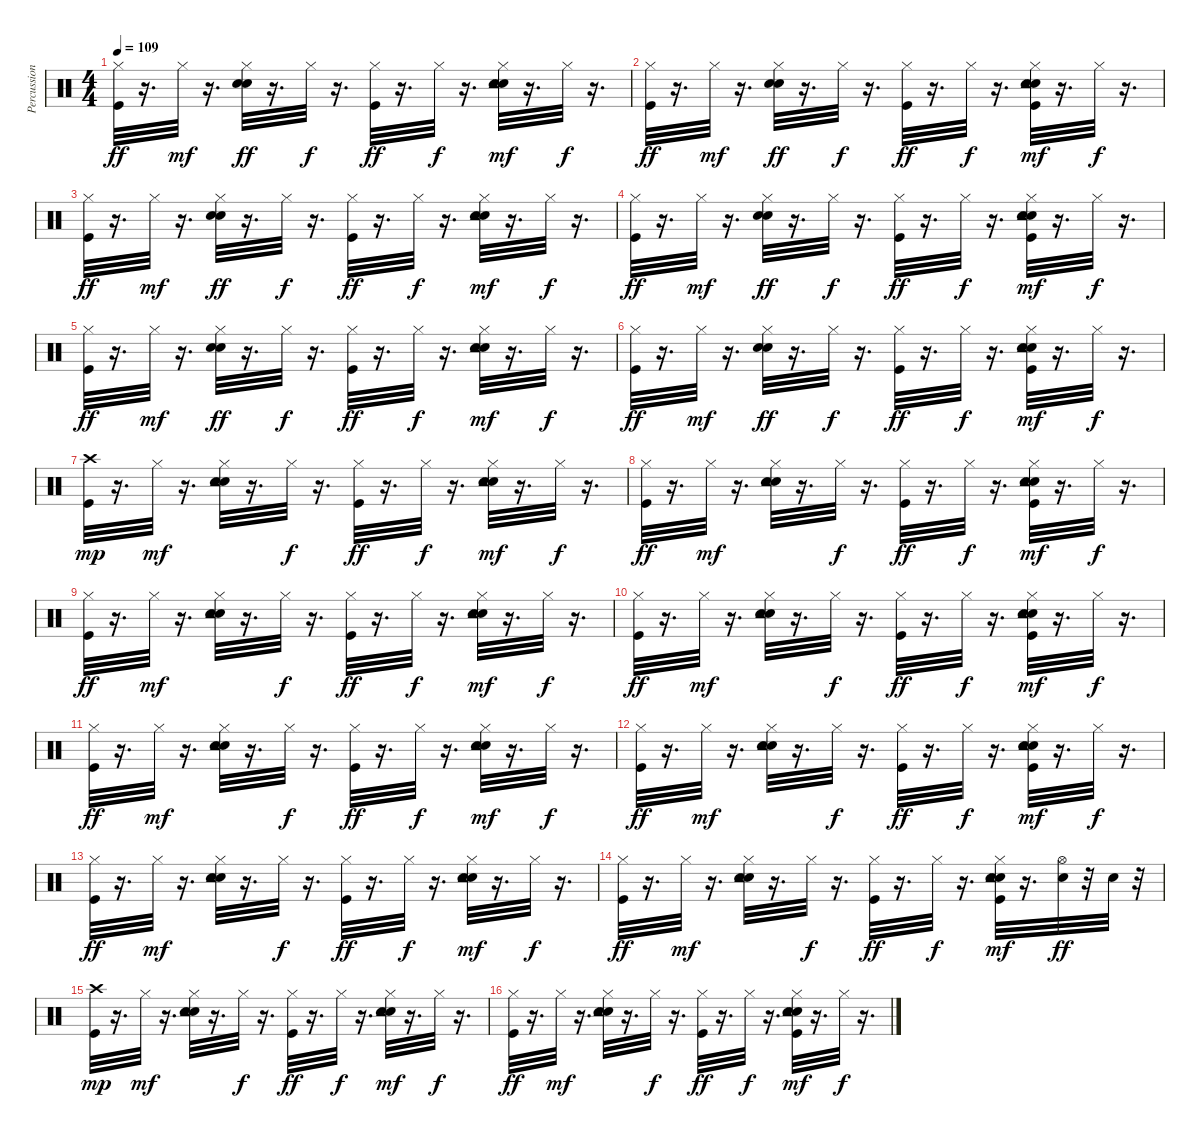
\track ("Percussion" "Percussion") {instrument percussion}
\staff {score}
\articulation defaults
\ts (4 4)
\tempo 109
\clef neutral
\ks c
("Kick (hit)" "Hi-Hat (closed)").32{dy ff} r.16{d} "Hi-Hat (closed)".32{dy mf} r.16{d} ("Snare (hit) 2" "Hand Clap (hit)" "Hi-Hat (closed)").32{dy ff} r.16{d} "Hi-Hat (closed)".32{dy f} r.16{d} ("Kick (hit)" "Hi-Hat (closed)").32{dy ff} r.16{d} "Hi-Hat (closed)".32{dy f} r.16{d} ("Snare (hit) 2" "Hand Clap (hit)" "Hi-Hat (closed)" "Tambourine (hit)").32{dy mf} r.16{d} "Hi-Hat (closed)".32{dy f} r.16{d} |
("Kick (hit)" "Hi-Hat (closed)").32{dy ff} r.16{d} "Hi-Hat (closed)".32{dy mf} r.16{d} ("Snare (hit) 2" "Hand Clap (hit)" "Hi-Hat (closed)").32{dy ff} r.16{d} "Hi-Hat (closed)".32{dy f} r.16{d} ("Kick (hit)" "Hi-Hat (closed)").32{dy ff} r.16{d} "Hi-Hat (closed)".32{dy f} r.16{d} ("Kick (hit)" "Snare (hit) 2" "Hand Clap (hit)" "Hi-Hat (closed)" "Tambourine (hit)").32{dy mf} r.16{d} "Hi-Hat (closed)".32{dy f} r.16{d} |
("Kick (hit)" "Hi-Hat (closed)").32{dy ff} r.16{d} "Hi-Hat (closed)".32{dy mf} r.16{d} ("Snare (hit) 2" "Hand Clap (hit)" "Hi-Hat (closed)").32{dy ff} r.16{d} "Hi-Hat (closed)".32{dy f} r.16{d} ("Kick (hit)" "Hi-Hat (closed)").32{dy ff} r.16{d} "Hi-Hat (closed)".32{dy f} r.16{d} ("Snare (hit) 2" "Hand Clap (hit)" "Hi-Hat (closed)" "Tambourine (hit)").32{dy mf} r.16{d} "Hi-Hat (closed)".32{dy f} r.16{d} |
("Kick (hit)" "Hi-Hat (closed)").32{dy ff} r.16{d} "Hi-Hat (closed)".32{dy mf} r.16{d} ("Snare (hit) 2" "Hand Clap (hit)" "Hi-Hat (closed)").32{dy ff} r.16{d} "Hi-Hat (closed)".32{dy f} r.16{d} ("Kick (hit)" "Hi-Hat (closed)").32{dy ff} r.16{d} "Hi-Hat (closed)".32{dy f} r.16{d} ("Kick (hit)" "Snare (hit) 2" "Hand Clap (hit)" "Hi-Hat (closed)" "Tambourine (hit)").32{dy mf} r.16{d} "Hi-Hat (closed)".32{dy f} r.16{d} |
("Kick (hit)" "Hi-Hat (closed)").32{dy ff} r.16{d} "Hi-Hat (closed)".32{dy mf} r.16{d} ("Snare (hit) 2" "Hand Clap (hit)" "Hi-Hat (closed)").32{dy ff} r.16{d} "Hi-Hat (closed)".32{dy f} r.16{d} ("Kick (hit)" "Hi-Hat (closed)").32{dy ff} r.16{d} "Hi-Hat (closed)".32{dy f} r.16{d} ("Snare (hit) 2" "Hand Clap (hit)" "Hi-Hat (closed)" "Tambourine (hit)").32{dy mf} r.16{d} "Hi-Hat (closed)".32{dy f} r.16{d} |
("Kick (hit)" "Hi-Hat (closed)").32{dy ff} r.16{d} "Hi-Hat (closed)".32{dy mf} r.16{d} ("Snare (hit) 2" "Hand Clap (hit)" "Hi-Hat (closed)").32{dy ff} r.16{d} "Hi-Hat (closed)".32{dy f} r.16{d} ("Kick (hit)" "Hi-Hat (closed)").32{dy ff} r.16{d} "Hi-Hat (closed)".32{dy f} r.16{d} ("Kick (hit)" "Snare (hit) 2" "Hand Clap (hit)" "Hi-Hat (closed)" "Tambourine (hit)").32{dy mf} r.16{d} "Hi-Hat (closed)".32{dy f} r.16{d} |
("Kick (hit)" "Crash high (hit)").32{dy mp} r.16{d} "Hi-Hat (closed)".32{dy mf} r.16{d} ("Snare (hit) 2" "Hand Clap (hit)" "Hi-Hat (closed)" "Tambourine (hit)").32 r.16{d} "Hi-Hat (closed)".32{dy f} r.16{d} ("Kick (hit)" "Hi-Hat (closed)").32{dy ff} r.16{d} "Hi-Hat (closed)".32{dy f} r.16{d} ("Snare (hit) 2" "Hand Clap (hit)" "Hi-Hat (closed)" "Tambourine (hit)").32{dy mf} r.16{d} "Hi-Hat (closed)".32{dy f} r.16{d} |
("Kick (hit)" "Hi-Hat (closed)").32{dy ff} r.16{d} "Hi-Hat (closed)".32{dy mf} r.16{d} ("Snare (hit) 2" "Hand Clap (hit)" "Hi-Hat (closed)" "Tambourine (hit)").32 r.16{d} "Hi-Hat (closed)".32{dy f} r.16{d} ("Kick (hit)" "Hi-Hat (closed)").32{dy ff} r.16{d} "Hi-Hat (closed)".32{dy f} r.16{d} ("Kick (hit)" "Snare (hit) 2" "Hand Clap (hit)" "Hi-Hat (closed)" "Tambourine (hit)").32{dy mf} r.16{d} "Hi-Hat (closed)".32{dy f} r.16{d} |
("Kick (hit)" "Hi-Hat (closed)").32{dy ff} r.16{d} "Hi-Hat (closed)".32{dy mf} r.16{d} ("Snare (hit) 2" "Hand Clap (hit)" "Hi-Hat (closed)" "Tambourine (hit)").32 r.16{d} "Hi-Hat (closed)".32{dy f} r.16{d} ("Kick (hit)" "Hi-Hat (closed)").32{dy ff} r.16{d} "Hi-Hat (closed)".32{dy f} r.16{d} ("Snare (hit) 2" "Hand Clap (hit)" "Hi-Hat (closed)" "Tambourine (hit)").32{dy mf} r.16{d} "Hi-Hat (closed)".32{dy f} r.16{d} |
("Kick (hit)" "Hi-Hat (closed)").32{dy ff} r.16{d} "Hi-Hat (closed)".32{dy mf} r.16{d} ("Snare (hit) 2" "Hand Clap (hit)" "Hi-Hat (closed)" "Tambourine (hit)").32 r.16{d} "Hi-Hat (closed)".32{dy f} r.16{d} ("Kick (hit)" "Hi-Hat (closed)").32{dy ff} r.16{d} "Hi-Hat (closed)".32{dy f} r.16{d} ("Kick (hit)" "Snare (hit) 2" "Hand Clap (hit)" "Hi-Hat (closed)" "Tambourine (hit)").32{dy mf} r.16{d} "Hi-Hat (closed)".32{dy f} r.16{d} |
("Kick (hit)" "Hi-Hat (closed)").32{dy ff} r.16{d} "Hi-Hat (closed)".32{dy mf} r.16{d} ("Snare (hit) 2" "Hand Clap (hit)" "Hi-Hat (closed)" "Tambourine (hit)").32 r.16{d} "Hi-Hat (closed)".32{dy f} r.16{d} ("Kick (hit)" "Hi-Hat (closed)").32{dy ff} r.16{d} "Hi-Hat (closed)".32{dy f} r.16{d} ("Snare (hit) 2" "Hand Clap (hit)" "Hi-Hat (closed)" "Tambourine (hit)").32{dy mf} r.16{d} "Hi-Hat (closed)".32{dy f} r.16{d} |
("Kick (hit)" "Hi-Hat (closed)").32{dy ff} r.16{d} "Hi-Hat (closed)".32{dy mf} r.16{d} ("Snare (hit) 2" "Hand Clap (hit)" "Hi-Hat (closed)" "Tambourine (hit)").32 r.16{d} "Hi-Hat (closed)".32{dy f} r.16{d} ("Kick (hit)" "Hi-Hat (closed)").32{dy ff} r.16{d} "Hi-Hat (closed)".32{dy f} r.16{d} ("Kick (hit)" "Snare (hit) 2" "Hand Clap (hit)" "Hi-Hat (closed)" "Tambourine (hit)").32{dy mf} r.16{d} "Hi-Hat (closed)".32{dy f} r.16{d} |
("Kick (hit)" "Hi-Hat (closed)").32{dy ff} r.16{d} "Hi-Hat (closed)".32{dy mf} r.16{d} ("Snare (hit) 2" "Hand Clap (hit)" "Hi-Hat (closed)" "Tambourine (hit)").32 r.16{d} "Hi-Hat (closed)".32{dy f} r.16{d} ("Kick (hit)" "Hi-Hat (closed)").32{dy ff} r.16{d} "Hi-Hat (closed)".32{dy f} r.16{d} ("Snare (hit) 2" "Hand Clap (hit)" "Hi-Hat (closed)" "Tambourine (hit)").32{dy mf} r.16{d} "Hi-Hat (closed)".32{dy f} r.16{d} |
("Kick (hit)" "Hi-Hat (closed)").32{dy ff} r.16{d} "Hi-Hat (closed)".32{dy mf} r.16{d} ("Snare (hit) 2" "Hand Clap (hit)" "Hi-Hat (closed)" "Tambourine (hit)").32 r.16{d} "Hi-Hat (closed)".32{dy f} r.16{d} ("Kick (hit)" "Hi-Hat (closed)").32{dy ff} r.16{d} "Hi-Hat (closed)".32{dy f} r.16{d} ("Kick (hit)" "Snare (hit) 2" "Hand Clap (hit)" "Hi-Hat (closed)" "Tambourine (hit)").32{dy mf} r.16{d} ("Snare (hit) 2" "Hi-Hat (open)").32{dy ff} r.32 "Snare (hit) 2".32 r.32 |
("Kick (hit)" "Crash high (hit)").32{dy mp} r.16{d} "Hi-Hat (closed)".32{dy mf} r.16{d} ("Snare (hit) 2" "Hand Clap (hit)" "Hi-Hat (closed)" "Tambourine (hit)").32 r.16{d} "Hi-Hat (closed)".32{dy f} r.16{d} ("Kick (hit)" "Hi-Hat (closed)").32{dy ff} r.16{d} "Hi-Hat (closed)".32{dy f} r.16{d} ("Snare (hit) 2" "Hand Clap (hit)" "Hi-Hat (closed)" "Tambourine (hit)").32{dy mf} r.16{d} "Hi-Hat (closed)".32{dy f} r.16{d} |
("Kick (hit)" "Hi-Hat (closed)").32{dy ff} r.16{d} "Hi-Hat (closed)".32{dy mf} r.16{d} ("Snare (hit) 2" "Hand Clap (hit)" "Hi-Hat (closed)" "Tambourine (hit)").32 r.16{d} "Hi-Hat (closed)".32{dy f} r.16{d} ("Kick (hit)" "Hi-Hat (closed)").32{dy ff} r.16{d} "Hi-Hat (closed)".32{dy f} r.16{d} ("Kick (hit)" "Snare (hit) 2" "Hand Clap (hit)" "Hi-Hat (closed)" "Tambourine (hit)").32{dy mf} r.16{d} "Hi-Hat (closed)".32{dy f} r.16{d}
